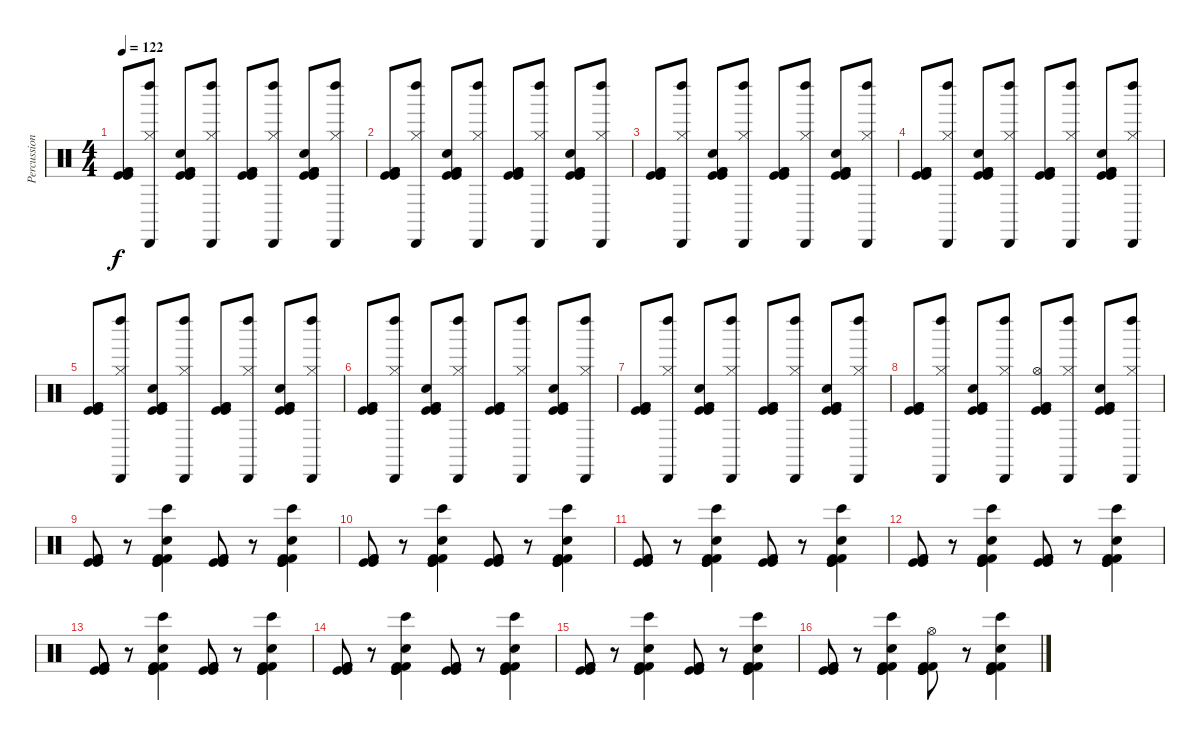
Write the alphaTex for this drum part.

\track ("Percussion" "Percussion") {instrument percussion}
\staff {score}
\articulation defaults
\ts (4 4)
\tempo 122
\clef neutral
\ks c
("Kick (hit)" "Kick (hit)" "Kick (hit) 2" "Kick (hit) 2").8{dy f} ("Cabasa (hit)" "Left Maraca (hit)" "Hi-Hat (closed)").8 ("Hand Clap (hit)" "Kick (hit)" "Kick (hit)" "Kick (hit) 2" "Kick (hit) 2").8 ("Cabasa (hit)" "Left Maraca (hit)" "Hi-Hat (closed)").8 ("Kick (hit)" "Kick (hit) 2" "Kick (hit) 2" "Kick (hit)").8 ("Cabasa (hit)" "Left Maraca (hit)" "Hi-Hat (closed)").8 ("Hand Clap (hit)" "Kick (hit) 2" "Kick (hit)" "Kick (hit) 2" "Kick (hit)").8 ("Cabasa (hit)" "Left Maraca (hit)" "Hi-Hat (closed)").8 |
("Kick (hit)" "Kick (hit)" "Kick (hit) 2" "Kick (hit) 2").8 ("Cabasa (hit)" "Left Maraca (hit)" "Hi-Hat (closed)").8 ("Hand Clap (hit)" "Kick (hit)" "Kick (hit)" "Kick (hit) 2" "Kick (hit) 2").8 ("Cabasa (hit)" "Left Maraca (hit)" "Hi-Hat (closed)").8 ("Kick (hit)" "Kick (hit) 2" "Kick (hit) 2" "Kick (hit)").8 ("Cabasa (hit)" "Left Maraca (hit)" "Hi-Hat (closed)").8 ("Hand Clap (hit)" "Kick (hit) 2" "Kick (hit)" "Kick (hit) 2" "Kick (hit)").8 ("Cabasa (hit)" "Left Maraca (hit)" "Hi-Hat (closed)").8 |
("Kick (hit)" "Kick (hit)" "Kick (hit) 2" "Kick (hit) 2").8 ("Cabasa (hit)" "Left Maraca (hit)" "Hi-Hat (closed)").8 ("Hand Clap (hit)" "Kick (hit)" "Kick (hit)" "Kick (hit) 2" "Kick (hit) 2").8 ("Cabasa (hit)" "Left Maraca (hit)" "Hi-Hat (closed)").8 ("Kick (hit)" "Kick (hit) 2" "Kick (hit) 2" "Kick (hit)").8 ("Cabasa (hit)" "Left Maraca (hit)" "Hi-Hat (closed)").8 ("Hand Clap (hit)" "Kick (hit) 2" "Kick (hit)" "Kick (hit) 2" "Kick (hit)").8 ("Cabasa (hit)" "Left Maraca (hit)" "Hi-Hat (closed)").8 |
("Kick (hit)" "Kick (hit)" "Kick (hit) 2" "Kick (hit) 2").8 ("Cabasa (hit)" "Left Maraca (hit)" "Hi-Hat (closed)").8 ("Hand Clap (hit)" "Kick (hit)" "Kick (hit)" "Kick (hit) 2" "Kick (hit) 2").8 ("Cabasa (hit)" "Left Maraca (hit)" "Hi-Hat (closed)").8 ("Kick (hit)" "Kick (hit) 2" "Kick (hit) 2" "Kick (hit)").8 ("Cabasa (hit)" "Left Maraca (hit)" "Hi-Hat (closed)").8 ("Hand Clap (hit)" "Kick (hit) 2" "Kick (hit)" "Kick (hit) 2" "Kick (hit)").8 ("Cabasa (hit)" "Left Maraca (hit)" "Hi-Hat (closed)").8 |
("Kick (hit)" "Kick (hit)" "Kick (hit) 2" "Kick (hit) 2").8 ("Cabasa (hit)" "Left Maraca (hit)" "Hi-Hat (closed)").8 ("Hand Clap (hit)" "Kick (hit)" "Kick (hit)" "Kick (hit) 2" "Kick (hit) 2").8 ("Cabasa (hit)" "Left Maraca (hit)" "Hi-Hat (closed)").8 ("Kick (hit)" "Kick (hit) 2" "Kick (hit) 2" "Kick (hit)").8 ("Cabasa (hit)" "Left Maraca (hit)" "Hi-Hat (closed)").8 ("Hand Clap (hit)" "Kick (hit) 2" "Kick (hit)" "Kick (hit) 2" "Kick (hit)").8 ("Cabasa (hit)" "Left Maraca (hit)" "Hi-Hat (closed)").8 |
("Kick (hit)" "Kick (hit)" "Kick (hit) 2" "Kick (hit) 2").8 ("Cabasa (hit)" "Left Maraca (hit)" "Hi-Hat (closed)").8 ("Hand Clap (hit)" "Kick (hit)" "Kick (hit)" "Kick (hit) 2" "Kick (hit) 2").8 ("Cabasa (hit)" "Left Maraca (hit)" "Hi-Hat (closed)").8 ("Kick (hit)" "Kick (hit) 2" "Kick (hit) 2" "Kick (hit)").8 ("Cabasa (hit)" "Left Maraca (hit)" "Hi-Hat (closed)").8 ("Hand Clap (hit)" "Kick (hit) 2" "Kick (hit)" "Kick (hit) 2" "Kick (hit)").8 ("Cabasa (hit)" "Left Maraca (hit)" "Hi-Hat (closed)").8 |
("Kick (hit)" "Kick (hit)" "Kick (hit) 2" "Kick (hit) 2").8 ("Cabasa (hit)" "Left Maraca (hit)" "Hi-Hat (closed)").8 ("Hand Clap (hit)" "Kick (hit)" "Kick (hit)" "Kick (hit) 2" "Kick (hit) 2").8 ("Cabasa (hit)" "Left Maraca (hit)" "Hi-Hat (closed)").8 ("Kick (hit)" "Kick (hit) 2" "Kick (hit) 2" "Kick (hit)").8 ("Cabasa (hit)" "Left Maraca (hit)" "Hi-Hat (closed)").8 ("Hand Clap (hit)" "Kick (hit) 2" "Kick (hit)" "Kick (hit) 2" "Kick (hit)").8 ("Cabasa (hit)" "Left Maraca (hit)" "Hi-Hat (closed)").8 |
("Kick (hit)" "Kick (hit)" "Kick (hit) 2" "Kick (hit) 2").8 ("Cabasa (hit)" "Left Maraca (hit)" "Hi-Hat (closed)").8 ("Hand Clap (hit)" "Kick (hit)" "Kick (hit)" "Kick (hit) 2" "Kick (hit) 2").8 ("Cabasa (hit)" "Left Maraca (hit)" "Hi-Hat (closed)").8 ("Hi-Hat (open)" "Kick (hit)" "Kick (hit) 2" "Kick (hit) 2" "Kick (hit)").8 ("Cabasa (hit)" "Left Maraca (hit)" "Hi-Hat (closed)").8 ("Hand Clap (hit)" "Kick (hit) 2" "Kick (hit)" "Kick (hit) 2" "Kick (hit)").8 ("Cabasa (hit)" "Left Maraca (hit)" "Hi-Hat (closed)").8 |
("Kick (hit)" "Kick (hit)" "Kick (hit) 2" "Kick (hit) 2").8 r.8 ("Hand Clap (hit)" "Bongo High (hit)" "Kick (hit)" "Kick (hit)" "Kick (hit) 2" "Kick (hit) 2").4 ("Kick (hit) 2" "Kick (hit)" "Kick (hit)" "Kick (hit) 2").8 r.8 ("Hand Clap (hit)" "Bongo High (hit)" "Kick (hit) 2" "Kick (hit) 2" "Kick (hit)" "Kick (hit)").4 |
("Kick (hit)" "Kick (hit)" "Kick (hit) 2" "Kick (hit) 2").8 r.8 ("Hand Clap (hit)" "Bongo High (hit)" "Kick (hit)" "Kick (hit)" "Kick (hit) 2" "Kick (hit) 2").4 ("Kick (hit) 2" "Kick (hit)" "Kick (hit)" "Kick (hit) 2").8 r.8 ("Hand Clap (hit)" "Bongo High (hit)" "Kick (hit) 2" "Kick (hit) 2" "Kick (hit)" "Kick (hit)").4 |
("Kick (hit)" "Kick (hit)" "Kick (hit) 2" "Kick (hit) 2").8 r.8 ("Hand Clap (hit)" "Bongo High (hit)" "Kick (hit)" "Kick (hit)" "Kick (hit) 2" "Kick (hit) 2").4 ("Kick (hit) 2" "Kick (hit)" "Kick (hit)" "Kick (hit) 2").8 r.8 ("Hand Clap (hit)" "Bongo High (hit)" "Kick (hit) 2" "Kick (hit) 2" "Kick (hit)" "Kick (hit)").4 |
("Kick (hit)" "Kick (hit)" "Kick (hit) 2" "Kick (hit) 2").8 r.8 ("Hand Clap (hit)" "Bongo High (hit)" "Kick (hit)" "Kick (hit)" "Kick (hit) 2" "Kick (hit) 2").4 ("Kick (hit) 2" "Kick (hit)" "Kick (hit)" "Kick (hit) 2").8 r.8 ("Hand Clap (hit)" "Bongo High (hit)" "Kick (hit) 2" "Kick (hit) 2" "Kick (hit)" "Kick (hit)").4 |
("Kick (hit)" "Kick (hit)" "Kick (hit) 2" "Kick (hit) 2").8 r.8 ("Hand Clap (hit)" "Bongo High (hit)" "Kick (hit)" "Kick (hit)" "Kick (hit) 2" "Kick (hit) 2").4 ("Kick (hit) 2" "Kick (hit)" "Kick (hit)" "Kick (hit) 2").8 r.8 ("Hand Clap (hit)" "Bongo High (hit)" "Kick (hit) 2" "Kick (hit) 2" "Kick (hit)" "Kick (hit)").4 |
("Kick (hit)" "Kick (hit)" "Kick (hit) 2" "Kick (hit) 2").8 r.8 ("Hand Clap (hit)" "Bongo High (hit)" "Kick (hit)" "Kick (hit)" "Kick (hit) 2" "Kick (hit) 2").4 ("Kick (hit) 2" "Kick (hit)" "Kick (hit)" "Kick (hit) 2").8 r.8 ("Hand Clap (hit)" "Bongo High (hit)" "Kick (hit) 2" "Kick (hit) 2" "Kick (hit)" "Kick (hit)").4 |
("Kick (hit)" "Kick (hit)" "Kick (hit) 2" "Kick (hit) 2").8 r.8 ("Hand Clap (hit)" "Bongo High (hit)" "Kick (hit)" "Kick (hit)" "Kick (hit) 2" "Kick (hit) 2").4 ("Kick (hit) 2" "Kick (hit)" "Kick (hit)" "Kick (hit) 2").8 r.8 ("Hand Clap (hit)" "Bongo High (hit)" "Kick (hit) 2" "Kick (hit) 2" "Kick (hit)" "Kick (hit)").4 |
("Kick (hit)" "Kick (hit)" "Kick (hit) 2" "Kick (hit) 2").8 r.8 ("Hand Clap (hit)" "Bongo High (hit)" "Kick (hit)" "Kick (hit)" "Kick (hit) 2" "Kick (hit) 2").4 ("Hi-Hat (open)" "Kick (hit) 2" "Kick (hit)" "Kick (hit)" "Kick (hit) 2").8 r.8 ("Hand Clap (hit)" "Bongo High (hit)" "Kick (hit) 2" "Kick (hit) 2" "Kick (hit)" "Kick (hit)").4
